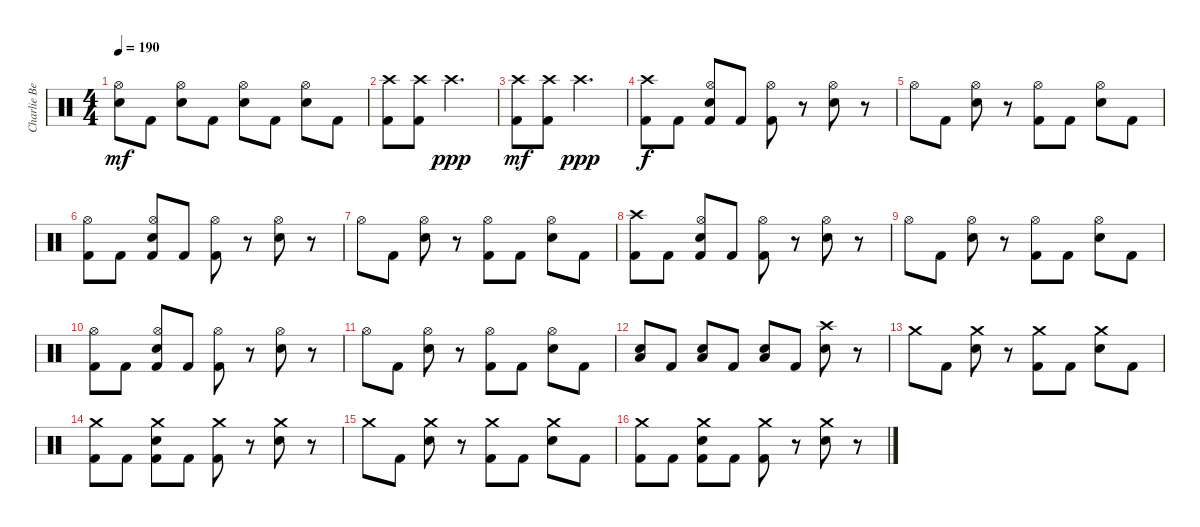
\track ("Charlie Benante" "Charlie Be") {instrument percussion}
\staff {score}
\articulation defaults
\ts (4 4)
\tempo 190
\clef neutral
\ks c
("Snare (hit) 2" "Hi-Hat (open)").8{dy mf} "Kick (hit) 2".8 ("Snare (hit) 2" "Hi-Hat (open)").8 "Kick (hit) 2".8 ("Snare (hit) 2" "Hi-Hat (open)").8 "Kick (hit) 2".8 ("Snare (hit) 2" "Hi-Hat (open)").8 "Kick (hit) 2".8 |
("Kick (hit) 2" "Crash high (hit)").8 ("Kick (hit) 2" "Crash high (hit)").8 "Crash high (hit)".2{d dy ppp} |
("Kick (hit) 2" "Crash high (hit)").8{dy mf} ("Kick (hit) 2" "Crash high (hit)").8 "Crash high (hit)".2{d dy ppp} |
("Kick (hit) 2" "Crash high (hit)").8{dy f} "Kick (hit) 2".8 ("Kick (hit) 2" "Hi-Hat (open)" "Snare (hit) 2").8 "Kick (hit) 2".8 ("Kick (hit) 2" "Hi-Hat (open)").8 r.8 ("Snare (hit) 2" "Hi-Hat (open)").8 r.8 |
"Hi-Hat (open)".8 "Kick (hit) 2".8 ("Snare (hit) 2" "Hi-Hat (open)").8 r.8 ("Kick (hit) 2" "Hi-Hat (open)").8 "Kick (hit) 2".8 ("Snare (hit) 2" "Hi-Hat (open)").8 "Kick (hit) 2".8 |
("Kick (hit) 2" "Hi-Hat (open)").8 "Kick (hit) 2".8 ("Kick (hit) 2" "Hi-Hat (open)" "Snare (hit) 2").8 "Kick (hit) 2".8 ("Kick (hit) 2" "Hi-Hat (open)").8 r.8 ("Snare (hit) 2" "Hi-Hat (open)").8 r.8 |
"Hi-Hat (open)".8 "Kick (hit) 2".8 ("Snare (hit) 2" "Hi-Hat (open)").8 r.8 ("Kick (hit) 2" "Hi-Hat (open)").8 "Kick (hit) 2".8 ("Snare (hit) 2" "Hi-Hat (open)").8 "Kick (hit) 2".8 |
("Kick (hit) 2" "Crash high (hit)").8 "Kick (hit) 2".8 ("Kick (hit) 2" "Hi-Hat (open)" "Snare (hit) 2").8 "Kick (hit) 2".8 ("Kick (hit) 2" "Hi-Hat (open)").8 r.8 ("Snare (hit) 2" "Hi-Hat (open)").8 r.8 |
"Hi-Hat (open)".8 "Kick (hit) 2".8 ("Snare (hit) 2" "Hi-Hat (open)").8 r.8 ("Kick (hit) 2" "Hi-Hat (open)").8 "Kick (hit) 2".8 ("Snare (hit) 2" "Hi-Hat (open)").8 "Kick (hit) 2".8 |
("Kick (hit) 2" "Hi-Hat (open)").8 "Kick (hit) 2".8 ("Kick (hit) 2" "Hi-Hat (open)" "Snare (hit) 2").8 "Kick (hit) 2".8 ("Kick (hit) 2" "Hi-Hat (open)").8 r.8 ("Snare (hit) 2" "Hi-Hat (open)").8 r.8 |
"Hi-Hat (open)".8 "Kick (hit) 2".8 ("Snare (hit) 2" "Hi-Hat (open)").8 r.8 ("Kick (hit) 2" "Hi-Hat (open)").8 "Kick (hit) 2".8 ("Snare (hit) 2" "Hi-Hat (open)").8 "Kick (hit) 2".8 |
("Snare (hit) 2" "Low Tom (hit)").8 "Kick (hit) 2".8 ("Snare (hit) 2" "Low Tom (hit)").8 "Kick (hit) 2".8 ("Snare (hit) 2" "Low Tom (hit)").8 "Kick (hit) 2".8 ("Snare (hit) 2" "Crash high (hit)").8 r.8 |
"Crash medium (hit)".8 "Kick (hit) 2".8 ("Snare (hit) 2" "Crash medium (hit)").8 r.8 ("Kick (hit) 2" "Crash medium (hit)").8 "Kick (hit) 2".8 ("Snare (hit) 2" "Crash medium (hit)").8 "Kick (hit) 2".8 |
("Kick (hit) 2" "Crash medium (hit)").8 "Kick (hit) 2".8 ("Kick (hit) 2" "Crash medium (hit)" "Snare (hit) 2").8 "Kick (hit) 2".8 ("Kick (hit) 2" "Crash medium (hit)").8 r.8 ("Snare (hit) 2" "Crash medium (hit)").8 r.8 |
"Crash medium (hit)".8 "Kick (hit) 2".8 ("Snare (hit) 2" "Crash medium (hit)").8 r.8 ("Kick (hit) 2" "Crash medium (hit)").8 "Kick (hit) 2".8 ("Snare (hit) 2" "Crash medium (hit)").8 "Kick (hit) 2".8 |
("Kick (hit) 2" "Crash medium (hit)").8 "Kick (hit) 2".8 ("Kick (hit) 2" "Crash medium (hit)" "Snare (hit) 2").8 "Kick (hit) 2".8 ("Kick (hit) 2" "Crash medium (hit)").8 r.8 ("Snare (hit) 2" "Crash medium (hit)").8 r.8
